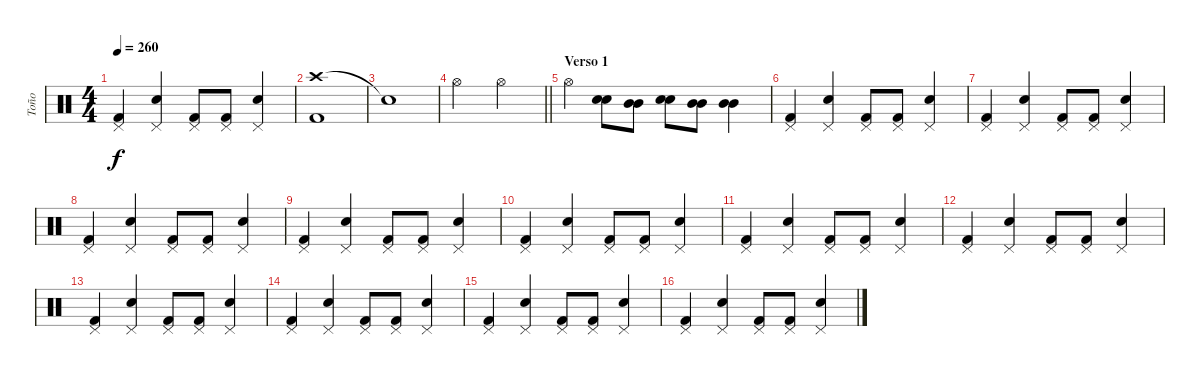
\track ("Toño" "Toño") {instrument percussion}
\staff {score}
\articulation defaults
\ts (4 4)
\tempo 260
\clef neutral
\ks c
("Pedal Hi-Hat (hit)" "Kick (hit) 2").4{dy f} ("Pedal Hi-Hat (hit)" "Electric Snare (hit)").4 ("Pedal Hi-Hat (hit)" "Kick (hit) 2").8 ("Pedal Hi-Hat (hit)" "Kick (hit) 2").8 ("Pedal Hi-Hat (hit)" "Electric Snare (hit)").4 |
("Crash high (hit)" "Kick (hit) 2").1 |
"Snare (hit)"{t}.1 |
\barLineRight lightlight "Hi-Hat (open)".2 "Hi-Hat (open)".2
|
\section ("" "Verso 1")
"Hi-Hat (open)".4 ("Electric Snare (hit)" "Electric Snare (hit)").8 ("Mid Tom (hit)" "Mid Tom (hit)").8 ("Electric Snare (hit)" "Electric Snare (hit)").8 ("Mid Tom (hit)" "Mid Tom (hit)").8 ("Mid Tom (hit)" "Mid Tom (hit)").4 |
("Pedal Hi-Hat (hit)" "Kick (hit) 2").4 ("Pedal Hi-Hat (hit)" "Electric Snare (hit)").4 ("Pedal Hi-Hat (hit)" "Kick (hit) 2").8 ("Pedal Hi-Hat (hit)" "Kick (hit) 2").8 ("Pedal Hi-Hat (hit)" "Electric Snare (hit)").4 |
("Pedal Hi-Hat (hit)" "Kick (hit) 2").4 ("Pedal Hi-Hat (hit)" "Electric Snare (hit)").4 ("Pedal Hi-Hat (hit)" "Kick (hit) 2").8 ("Pedal Hi-Hat (hit)" "Kick (hit) 2").8 ("Pedal Hi-Hat (hit)" "Electric Snare (hit)").4 |
("Pedal Hi-Hat (hit)" "Kick (hit) 2").4 ("Pedal Hi-Hat (hit)" "Electric Snare (hit)").4 ("Pedal Hi-Hat (hit)" "Kick (hit) 2").8 ("Pedal Hi-Hat (hit)" "Kick (hit) 2").8 ("Pedal Hi-Hat (hit)" "Electric Snare (hit)").4 |
("Pedal Hi-Hat (hit)" "Kick (hit) 2").4 ("Pedal Hi-Hat (hit)" "Electric Snare (hit)").4 ("Pedal Hi-Hat (hit)" "Kick (hit) 2").8 ("Pedal Hi-Hat (hit)" "Kick (hit) 2").8 ("Pedal Hi-Hat (hit)" "Electric Snare (hit)").4 |
("Pedal Hi-Hat (hit)" "Kick (hit) 2").4 ("Pedal Hi-Hat (hit)" "Electric Snare (hit)").4 ("Pedal Hi-Hat (hit)" "Kick (hit) 2").8 ("Pedal Hi-Hat (hit)" "Kick (hit) 2").8 ("Pedal Hi-Hat (hit)" "Electric Snare (hit)").4 |
("Pedal Hi-Hat (hit)" "Kick (hit) 2").4 ("Pedal Hi-Hat (hit)" "Electric Snare (hit)").4 ("Pedal Hi-Hat (hit)" "Kick (hit) 2").8 ("Pedal Hi-Hat (hit)" "Kick (hit) 2").8 ("Pedal Hi-Hat (hit)" "Electric Snare (hit)").4 |
("Pedal Hi-Hat (hit)" "Kick (hit) 2").4 ("Pedal Hi-Hat (hit)" "Electric Snare (hit)").4 ("Pedal Hi-Hat (hit)" "Kick (hit) 2").8 ("Pedal Hi-Hat (hit)" "Kick (hit) 2").8 ("Pedal Hi-Hat (hit)" "Electric Snare (hit)").4 |
("Pedal Hi-Hat (hit)" "Kick (hit) 2").4 ("Pedal Hi-Hat (hit)" "Electric Snare (hit)").4 ("Pedal Hi-Hat (hit)" "Kick (hit) 2").8 ("Pedal Hi-Hat (hit)" "Kick (hit) 2").8 ("Pedal Hi-Hat (hit)" "Electric Snare (hit)").4 |
("Pedal Hi-Hat (hit)" "Kick (hit) 2").4 ("Pedal Hi-Hat (hit)" "Electric Snare (hit)").4 ("Pedal Hi-Hat (hit)" "Kick (hit) 2").8 ("Pedal Hi-Hat (hit)" "Kick (hit) 2").8 ("Pedal Hi-Hat (hit)" "Electric Snare (hit)").4 |
("Pedal Hi-Hat (hit)" "Kick (hit) 2").4 ("Pedal Hi-Hat (hit)" "Electric Snare (hit)").4 ("Pedal Hi-Hat (hit)" "Kick (hit) 2").8 ("Pedal Hi-Hat (hit)" "Kick (hit) 2").8 ("Pedal Hi-Hat (hit)" "Electric Snare (hit)").4 |
("Pedal Hi-Hat (hit)" "Kick (hit) 2").4 ("Pedal Hi-Hat (hit)" "Electric Snare (hit)").4 ("Pedal Hi-Hat (hit)" "Kick (hit) 2").8 ("Pedal Hi-Hat (hit)" "Kick (hit) 2").8 ("Pedal Hi-Hat (hit)" "Electric Snare (hit)").4
